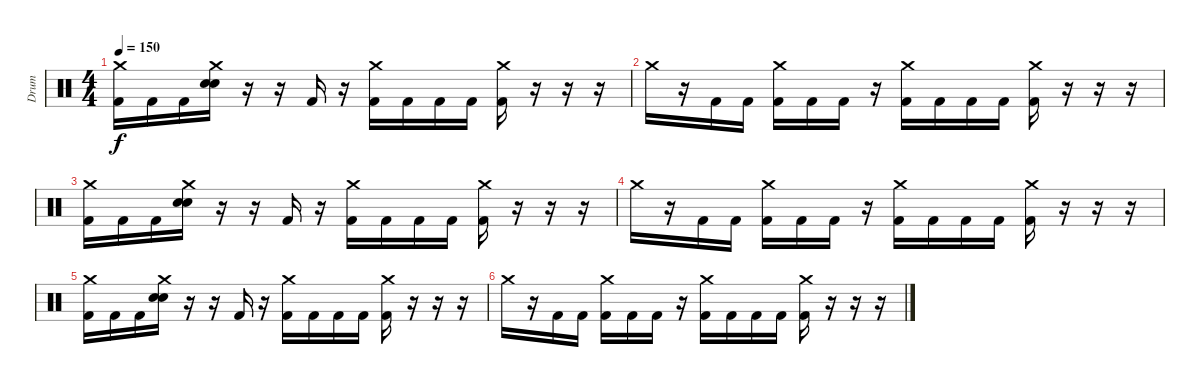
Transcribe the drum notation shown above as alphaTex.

\track ("Drum" "Drum") {instrument percussion}
\staff {score}
\articulation defaults
\ts (4 4)
\tempo 150
\clef neutral
\ks c
("Crash medium (hit)" "Kick (hit) 2").16{dy f} "Kick (hit) 2".16 "Kick (hit) 2".16 ("Crash medium (hit)" "Snare (hit) 2" "Electric Snare (hit)").16 r.16 r.16 "Kick (hit) 2".16 r.16 ("Crash medium (hit)" "Kick (hit) 2").16 "Kick (hit) 2".16 "Kick (hit) 2".16 "Kick (hit) 2".16 ("Crash medium (hit)" "Kick (hit) 2").16 r.16 r.16 r.16 |
"Crash medium (hit)".16 r.16 "Kick (hit) 2".16 "Kick (hit) 2".16 ("Crash medium (hit)" "Kick (hit) 2").16 "Kick (hit) 2".16 "Kick (hit) 2".16 r.16 ("Crash medium (hit)" "Kick (hit) 2").16 "Kick (hit) 2".16 "Kick (hit) 2".16 "Kick (hit) 2".16 ("Crash medium (hit)" "Kick (hit) 2").16 r.16 r.16 r.16 |
("Crash medium (hit)" "Kick (hit) 2").16 "Kick (hit) 2".16 "Kick (hit) 2".16 ("Crash medium (hit)" "Snare (hit) 2" "Electric Snare (hit)").16 r.16 r.16 "Kick (hit) 2".16 r.16 ("Crash medium (hit)" "Kick (hit) 2").16 "Kick (hit) 2".16 "Kick (hit) 2".16 "Kick (hit) 2".16 ("Crash medium (hit)" "Kick (hit) 2").16 r.16 r.16 r.16 |
"Crash medium (hit)".16 r.16 "Kick (hit) 2".16 "Kick (hit) 2".16 ("Crash medium (hit)" "Kick (hit) 2").16 "Kick (hit) 2".16 "Kick (hit) 2".16 r.16 ("Crash medium (hit)" "Kick (hit) 2").16 "Kick (hit) 2".16 "Kick (hit) 2".16 "Kick (hit) 2".16 ("Crash medium (hit)" "Kick (hit) 2").16 r.16 r.16 r.16 |
("Crash medium (hit)" "Kick (hit) 2").16 "Kick (hit) 2".16 "Kick (hit) 2".16 ("Crash medium (hit)" "Snare (hit) 2" "Electric Snare (hit)").16 r.16 r.16 "Kick (hit) 2".16 r.16 ("Crash medium (hit)" "Kick (hit) 2").16 "Kick (hit) 2".16 "Kick (hit) 2".16 "Kick (hit) 2".16 ("Crash medium (hit)" "Kick (hit) 2").16 r.16 r.16 r.16 |
"Crash medium (hit)".16 r.16 "Kick (hit) 2".16 "Kick (hit) 2".16 ("Crash medium (hit)" "Kick (hit) 2").16 "Kick (hit) 2".16 "Kick (hit) 2".16 r.16 ("Crash medium (hit)" "Kick (hit) 2").16 "Kick (hit) 2".16 "Kick (hit) 2".16 "Kick (hit) 2".16 ("Crash medium (hit)" "Kick (hit) 2").16 r.16 r.16 r.16
